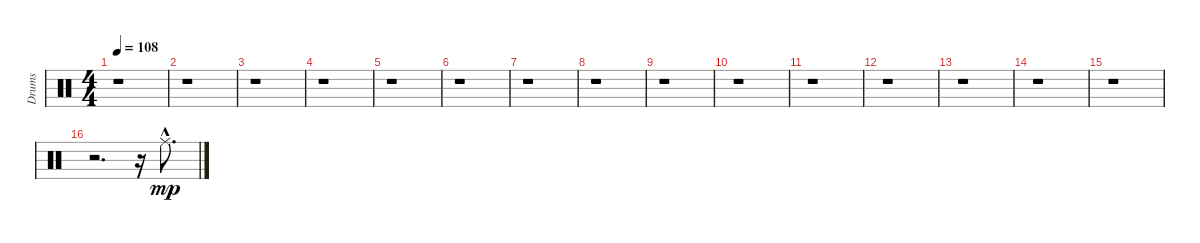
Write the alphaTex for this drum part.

\track ("Drums" "Drums") {instrument percussion}
\staff {score}
\articulation defaults
\ts (4 4)
\tempo 108
\clef neutral
\ks c
r.1{dy mp} |
r.1 |
r.1 |
r.1 |
r.1 |
r.1 |
r.1 |
r.1 |
r.1 |
r.1 |
r.1 |
r.1 |
r.1 |
r.1 |
r.1 |
r.2{d} r.16 "Ride (middle)"{hac}.8{d}
